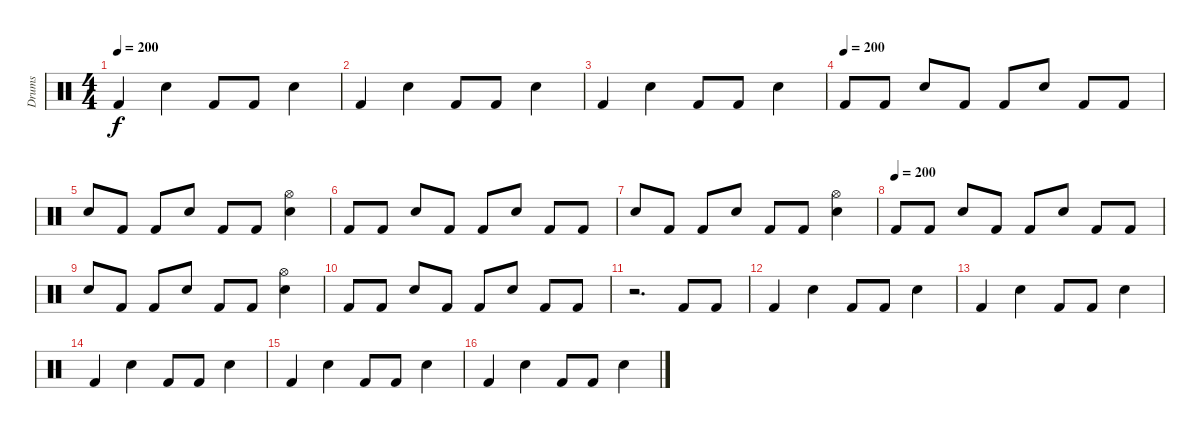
\track ("Drums" "Drums") {instrument percussion}
\staff {score}
\articulation defaults
\ts (4 4)
\tempo 200
\clef neutral
\ks c "Kick (hit) 2".4{dy f} "Snare (hit) 2".4 "Kick (hit) 2".8 "Kick (hit) 2".8 "Snare (hit) 2".4
|
"Kick (hit) 2".4 "Snare (hit) 2".4 "Kick (hit) 2".8 "Kick (hit) 2".8 "Snare (hit) 2".4 |
"Kick (hit) 2".4 "Snare (hit) 2".4 "Kick (hit) 2".8 "Kick (hit) 2".8 "Snare (hit) 2".4 |
\tempo (200)
"Kick (hit) 2".8 "Kick (hit) 2".8 "Snare (hit) 2".8 "Kick (hit) 2".8 "Kick (hit) 2".8 "Snare (hit) 2".8 "Kick (hit) 2".8 "Kick (hit) 2".8 |
"Snare (hit) 2".8 "Kick (hit) 2".8 "Kick (hit) 2".8 "Snare (hit) 2".8 "Kick (hit) 2".8 "Kick (hit) 2".8 ("Hi-Hat (open)" "Snare (hit) 2").4 |
"Kick (hit) 2".8 "Kick (hit) 2".8 "Snare (hit) 2".8 "Kick (hit) 2".8 "Kick (hit) 2".8 "Snare (hit) 2".8 "Kick (hit) 2".8 "Kick (hit) 2".8 |
"Snare (hit) 2".8 "Kick (hit) 2".8 "Kick (hit) 2".8 "Snare (hit) 2".8 "Kick (hit) 2".8 "Kick (hit) 2".8 ("Hi-Hat (open)" "Snare (hit) 2").4 |
\tempo (200)
"Kick (hit) 2".8 "Kick (hit) 2".8 "Snare (hit) 2".8 "Kick (hit) 2".8 "Kick (hit) 2".8 "Snare (hit) 2".8 "Kick (hit) 2".8 "Kick (hit) 2".8 |
"Snare (hit) 2".8 "Kick (hit) 2".8 "Kick (hit) 2".8 "Snare (hit) 2".8 "Kick (hit) 2".8 "Kick (hit) 2".8 ("Hi-Hat (open)" "Snare (hit) 2").4 |
"Kick (hit) 2".8 "Kick (hit) 2".8 "Snare (hit) 2".8 "Kick (hit) 2".8 "Kick (hit) 2".8 "Snare (hit) 2".8 "Kick (hit) 2".8 "Kick (hit) 2".8 |
r.2{d} "Kick (hit) 2".8 "Kick (hit) 2".8 |
"Kick (hit) 2".4 "Snare (hit) 2".4 "Kick (hit) 2".8 "Kick (hit) 2".8 "Snare (hit) 2".4 |
"Kick (hit) 2".4 "Snare (hit) 2".4 "Kick (hit) 2".8 "Kick (hit) 2".8 "Snare (hit) 2".4 |
"Kick (hit) 2".4 "Snare (hit) 2".4 "Kick (hit) 2".8 "Kick (hit) 2".8 "Snare (hit) 2".4 |
"Kick (hit) 2".4 "Snare (hit) 2".4 "Kick (hit) 2".8 "Kick (hit) 2".8 "Snare (hit) 2".4 |
"Kick (hit) 2".4 "Snare (hit) 2".4 "Kick (hit) 2".8 "Kick (hit) 2".8 "Snare (hit) 2".4
